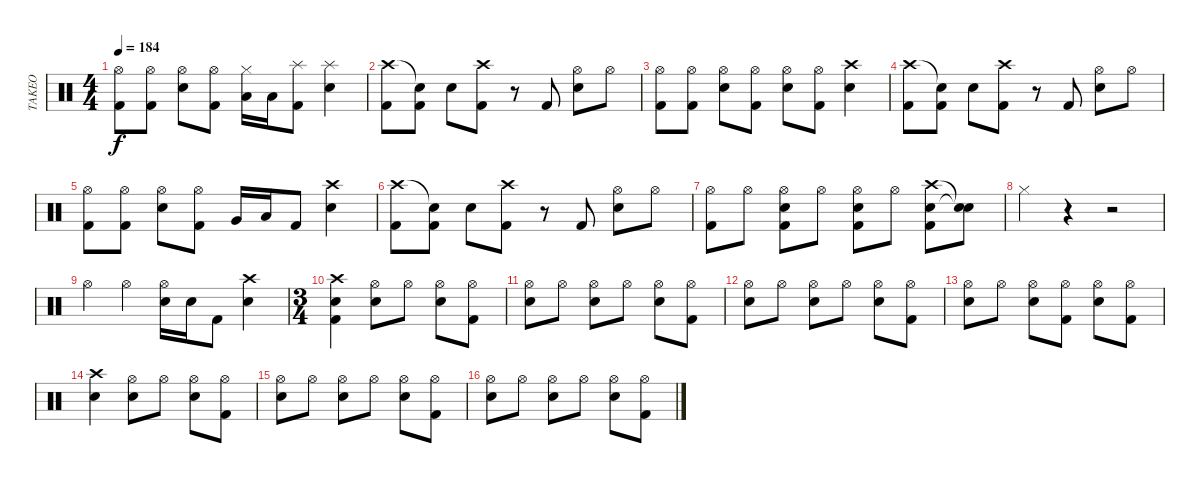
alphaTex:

\track ("TAKEO" "TAKEO") {instrument percussion}
\staff {score}
\articulation defaults
\ts (4 4)
\tempo 184
\clef neutral
\ks c
("Hi-Hat (open)" "Kick (hit) 2").8{dy f} ("Hi-Hat (open)" "Kick (hit) 2").8 ("Hi-Hat (open)" "Electric Snare (hit)").8 ("Hi-Hat (open)" "Kick (hit) 2").8 ("Hi-Hat (closed)" "Low Tom (hit)").16 "Low Tom (hit)".16 ("Splash (hit)" "Kick (hit) 2").8 ("Splash (hit)" "Electric Snare (hit)").4 |
("Crash high (hit)" "Kick (hit) 2").8 ("Snare (hit)"{t} "Kick (hit) 2").8 "Electric Snare (hit)".8 ("Crash high (hit)" "Kick (hit) 2").8 r.8 "Kick (hit) 2".8 ("Hi-Hat (open)" "Electric Snare (hit)").8 "Hi-Hat (open)".8 |
("Hi-Hat (open)" "Kick (hit) 2").8 ("Hi-Hat (open)" "Kick (hit) 2").8 ("Hi-Hat (open)" "Electric Snare (hit)").8 ("Hi-Hat (open)" "Kick (hit) 2").8 ("Hi-Hat (open)" "Electric Snare (hit)").8 ("Hi-Hat (open)" "Kick (hit) 2").8 ("Crash high (hit)" "Electric Snare (hit)").4 |
("Crash high (hit)" "Kick (hit) 2").8 ("Snare (hit)"{t} "Kick (hit) 2").8 "Electric Snare (hit)".8 ("Crash high (hit)" "Kick (hit) 2").8 r.8 "Kick (hit) 2".8 ("Hi-Hat (open)" "Electric Snare (hit)").8 "Hi-Hat (open)".8 |
("Hi-Hat (open)" "Kick (hit) 2").8 ("Hi-Hat (open)" "Kick (hit) 2").8 ("Hi-Hat (open)" "Electric Snare (hit)").8 ("Hi-Hat (open)" "Kick (hit) 2").8 "Very Low Tom (hit)".16 "Low Tom (hit)".16 "Kick (hit) 2".8 ("Crash high (hit)" "Electric Snare (hit)").4 |
("Crash high (hit)" "Kick (hit) 2").8 ("Snare (hit)"{t} "Kick (hit) 2").8 "Electric Snare (hit)".8 ("Crash high (hit)" "Kick (hit) 2").8 r.8 "Kick (hit) 2".8 ("Hi-Hat (open)" "Electric Snare (hit)").8 "Hi-Hat (open)".8 |
("Hi-Hat (open)" "Kick (hit) 2").8 "Hi-Hat (open)".8 ("Hi-Hat (open)" "Electric Snare (hit)" "Kick (hit) 2").8 "Hi-Hat (open)".8 ("Hi-Hat (open)" "Electric Snare (hit)" "Kick (hit) 2").8 "Hi-Hat (open)".8 ("Crash high (hit)" "Electric Snare (hit)" "Kick (hit) 2").8 ("Snare (hit)"{t} "Snare (hit)"{t}).8 |
"Hi-Hat (closed)".4 r.4 r.2 |
"Hi-Hat (open)".4 "Hi-Hat (open)".4 ("Hi-Hat (open)" "Electric Snare (hit)").16 "Electric Snare (hit)".16 "Kick (hit) 2".8 ("Crash high (hit)" "Electric Snare (hit)").4 |
\ts (3 4)
("Crash high (hit)" "Electric Snare (hit)" "Kick (hit) 2").4 ("Hi-Hat (open)" "Electric Snare (hit)").8 "Hi-Hat (open)".8 ("Hi-Hat (open)" "Electric Snare (hit)").8 ("Hi-Hat (open)" "Kick (hit) 2").8 |
("Hi-Hat (open)" "Electric Snare (hit)").8 "Hi-Hat (open)".8 ("Hi-Hat (open)" "Electric Snare (hit)").8 "Hi-Hat (open)".8 ("Hi-Hat (open)" "Electric Snare (hit)").8 ("Hi-Hat (open)" "Kick (hit) 2").8 |
("Hi-Hat (open)" "Electric Snare (hit)").8 "Hi-Hat (open)".8 ("Hi-Hat (open)" "Electric Snare (hit)").8 "Hi-Hat (open)".8 ("Hi-Hat (open)" "Electric Snare (hit)").8 ("Hi-Hat (open)" "Kick (hit) 2").8 |
("Hi-Hat (open)" "Electric Snare (hit)").8 "Hi-Hat (open)".8 ("Hi-Hat (open)" "Electric Snare (hit)").8 ("Hi-Hat (open)" "Kick (hit) 2").8 ("Hi-Hat (open)" "Electric Snare (hit)").8 ("Hi-Hat (open)" "Kick (hit) 2").8 |
("Crash high (hit)" "Electric Snare (hit)").4 ("Hi-Hat (open)" "Electric Snare (hit)").8 "Hi-Hat (open)".8 ("Hi-Hat (open)" "Electric Snare (hit)").8 ("Hi-Hat (open)" "Kick (hit) 2").8 |
("Hi-Hat (open)" "Electric Snare (hit)").8 "Hi-Hat (open)".8 ("Hi-Hat (open)" "Electric Snare (hit)").8 "Hi-Hat (open)".8 ("Hi-Hat (open)" "Electric Snare (hit)").8 ("Hi-Hat (open)" "Kick (hit) 2").8 |
("Hi-Hat (open)" "Electric Snare (hit)").8 "Hi-Hat (open)".8 ("Hi-Hat (open)" "Electric Snare (hit)").8 "Hi-Hat (open)".8 ("Hi-Hat (open)" "Electric Snare (hit)").8 ("Hi-Hat (open)" "Kick (hit) 2").8
